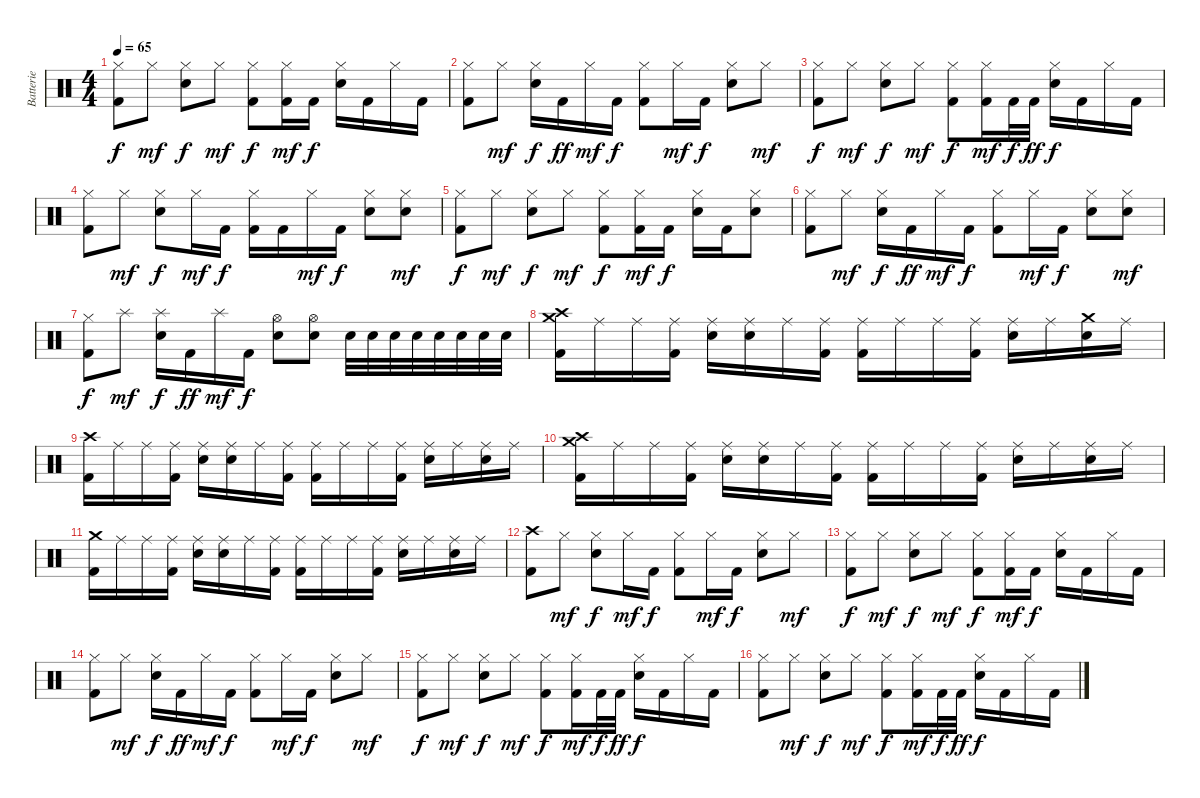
\track ("Batterie" "Batterie") {instrument percussion}
\staff {score}
\articulation defaults
\ts (4 4)
\tempo 65
\clef neutral
\ks c
("Hi-Hat (closed)" "Kick (hit) 2").8{dy f} "Hi-Hat (closed)".8{dy mf} ("Hi-Hat (closed)" "Electric Snare (hit)").8{dy f} "Hi-Hat (closed)".8{dy mf} ("Hi-Hat (closed)" "Kick (hit) 2").8{dy f} ("Hi-Hat (closed)" "Kick (hit) 2").16{dy mf} "Kick (hit) 2".16{dy f} ("Hi-Hat (closed)" "Electric Snare (hit)").16 "Kick (hit) 2".16 "Hi-Hat (closed)".16 "Kick (hit) 2".16 |
("Hi-Hat (closed)" "Kick (hit) 2").8 "Hi-Hat (closed)".8{dy mf} ("Hi-Hat (closed)" "Electric Snare (hit)").16{dy f} "Kick (hit) 2".16{dy ff} "Hi-Hat (closed)".16{dy mf} "Kick (hit) 2".16{dy f} ("Hi-Hat (closed)" "Kick (hit) 2").8 "Hi-Hat (closed)".16{dy mf} "Kick (hit) 2".16{dy f} ("Hi-Hat (closed)" "Electric Snare (hit)").8 "Hi-Hat (closed)".8{dy mf} |
("Hi-Hat (closed)" "Kick (hit) 2").8{dy f} "Hi-Hat (closed)".8{dy mf} ("Hi-Hat (closed)" "Electric Snare (hit)").8{dy f} "Hi-Hat (closed)".8{dy mf} ("Hi-Hat (closed)" "Kick (hit) 2").8{dy f} ("Hi-Hat (closed)" "Kick (hit) 2").16{dy mf} "Kick (hit) 2".32{dy f} "Kick (hit) 2".32{dy ff} ("Hi-Hat (closed)" "Electric Snare (hit)").16{dy f} "Kick (hit) 2".16 "Hi-Hat (closed)".16 "Kick (hit) 2".16 |
("Hi-Hat (closed)" "Kick (hit) 2").8 "Hi-Hat (closed)".8{dy mf} ("Hi-Hat (closed)" "Electric Snare (hit)").8{dy f} "Hi-Hat (closed)".16{dy mf} "Kick (hit) 2".16{dy f} ("Hi-Hat (closed)" "Kick (hit) 2").16 "Kick (hit) 2".16 "Hi-Hat (closed)".16{dy mf} "Kick (hit) 2".16{dy f} ("Hi-Hat (closed)" "Electric Snare (hit)").8 ("Hi-Hat (closed)" "Electric Snare (hit)").8{dy mf} |
("Hi-Hat (closed)" "Kick (hit) 2").8{dy f} "Hi-Hat (closed)".8{dy mf} ("Hi-Hat (closed)" "Electric Snare (hit)").8{dy f} "Hi-Hat (closed)".8{dy mf} ("Hi-Hat (closed)" "Kick (hit) 2").8{dy f} ("Hi-Hat (closed)" "Kick (hit) 2").16{dy mf} "Kick (hit) 2".16{dy f} ("Hi-Hat (closed)" "Electric Snare (hit)").16 "Kick (hit) 2".16 ("Hi-Hat (closed)" "Electric Snare (hit)").8 |
("Hi-Hat (closed)" "Kick (hit) 2").8 "Hi-Hat (closed)".8{dy mf} ("Hi-Hat (closed)" "Electric Snare (hit)").16{dy f} "Kick (hit) 2".16{dy ff} "Hi-Hat (closed)".16{dy mf} "Kick (hit) 2".16{dy f} ("Hi-Hat (closed)" "Kick (hit) 2").8 "Hi-Hat (closed)".16{dy mf} "Kick (hit) 2".16{dy f} ("Hi-Hat (closed)" "Electric Snare (hit)").8 ("Hi-Hat (closed)" "Electric Snare (hit)").8{dy mf} |
("Hi-Hat (closed)" "Kick (hit) 2").8{dy f} "Splash (hit)".8{dy mf} ("Splash (hit)" "Electric Snare (hit)").16{dy f} "Kick (hit) 2".16{dy ff} "Splash (hit)".16{dy mf} "Kick (hit) 2".16{dy f} ("Hi-Hat (open)" "Electric Snare (hit)").8 ("Hi-Hat (open)" "Electric Snare (hit)").8 "Electric Snare (hit)".32 "Electric Snare (hit)".32 "Electric Snare (hit)".32 "Electric Snare (hit)".32 "Electric Snare (hit)".32 "Electric Snare (hit)".32 "Electric Snare (hit)".32 "Electric Snare (hit)".32 |
("Crash high (hit)" "Crash medium (hit)" "Kick (hit) 2").16 "Ride (middle)".16 "Ride (middle)".16 ("Ride (middle)" "Kick (hit) 2").16 ("Ride (middle)" "Electric Snare (hit)").16 ("Ride (middle)" "Electric Snare (hit)").16 "Ride (middle)".16 ("Ride (middle)" "Kick (hit) 2").16 ("Ride (middle)" "Kick (hit) 2").16 "Ride (middle)".16 "Ride (middle)".16 ("Ride (middle)" "Kick (hit) 2").16 ("Ride (middle)" "Electric Snare (hit)").16 "Ride (middle)".16 ("Crash medium (hit)" "Electric Snare (hit)").16 "Ride (middle)".16 |
("Crash high (hit)" "Kick (hit) 2").16 "Ride (middle)".16 "Ride (middle)".16 ("Ride (middle)" "Kick (hit) 2").16 ("Ride (middle)" "Electric Snare (hit)").16 ("Ride (middle)" "Electric Snare (hit)").16 "Ride (middle)".16 ("Ride (middle)" "Kick (hit) 2").16 ("Ride (middle)" "Kick (hit) 2").16 "Ride (middle)".16 "Ride (middle)".16 ("Ride (middle)" "Kick (hit) 2").16 ("Ride (middle)" "Electric Snare (hit)").16 "Ride (middle)".16 ("Ride (middle)" "Electric Snare (hit)").16 "Ride (middle)".16 |
("Crash high (hit)" "Crash medium (hit)" "Kick (hit) 2").16 "Ride (middle)".16 "Ride (middle)".16 ("Ride (middle)" "Kick (hit) 2").16 ("Ride (middle)" "Electric Snare (hit)").16 ("Ride (middle)" "Electric Snare (hit)").16 "Ride (middle)".16 ("Ride (middle)" "Kick (hit) 2").16 ("Ride (middle)" "Kick (hit) 2").16 "Ride (middle)".16 "Ride (middle)".16 ("Ride (middle)" "Kick (hit) 2").16 ("Ride (middle)" "Electric Snare (hit)").16 "Ride (middle)".16 ("Ride (middle)" "Electric Snare (hit)").16 "Ride (middle)".16 |
("Crash medium (hit)" "Kick (hit) 2").16 "Ride (middle)".16 "Ride (middle)".16 ("Ride (middle)" "Kick (hit) 2").16 ("Ride (middle)" "Electric Snare (hit)").16 ("Ride (middle)" "Electric Snare (hit)").16 "Ride (middle)".16 ("Ride (middle)" "Kick (hit) 2").16 ("Ride (middle)" "Kick (hit) 2").16 "Ride (middle)".16 "Ride (middle)".16 ("Ride (middle)" "Kick (hit) 2").16 ("Ride (middle)" "Electric Snare (hit)").16 "Ride (middle)".16 ("Ride (middle)" "Electric Snare (hit)").16 "Ride (middle)".16 |
("Crash high (hit)" "Kick (hit) 2").8 "Hi-Hat (closed)".8{dy mf} ("Hi-Hat (closed)" "Electric Snare (hit)").8{dy f} "Hi-Hat (closed)".16{dy mf} "Kick (hit) 2".16{dy f} ("Hi-Hat (closed)" "Kick (hit) 2").8 "Hi-Hat (closed)".16{dy mf} "Kick (hit) 2".16{dy f} ("Hi-Hat (closed)" "Electric Snare (hit)").8 "Hi-Hat (closed)".8{dy mf} |
("Hi-Hat (closed)" "Kick (hit) 2").8{dy f} "Hi-Hat (closed)".8{dy mf} ("Hi-Hat (closed)" "Electric Snare (hit)").8{dy f} "Hi-Hat (closed)".8{dy mf} ("Hi-Hat (closed)" "Kick (hit) 2").8{dy f} ("Hi-Hat (closed)" "Kick (hit) 2").16{dy mf} "Kick (hit) 2".16{dy f} ("Hi-Hat (closed)" "Electric Snare (hit)").16 "Kick (hit) 2".16 "Hi-Hat (closed)".16 "Kick (hit) 2".16 |
("Hi-Hat (closed)" "Kick (hit) 2").8 "Hi-Hat (closed)".8{dy mf} ("Hi-Hat (closed)" "Electric Snare (hit)").16{dy f} "Kick (hit) 2".16{dy ff} "Hi-Hat (closed)".16{dy mf} "Kick (hit) 2".16{dy f} ("Hi-Hat (closed)" "Kick (hit) 2").8 "Hi-Hat (closed)".16{dy mf} "Kick (hit) 2".16{dy f} ("Hi-Hat (closed)" "Electric Snare (hit)").8 "Hi-Hat (closed)".8{dy mf} |
("Hi-Hat (closed)" "Kick (hit) 2").8{dy f} "Hi-Hat (closed)".8{dy mf} ("Hi-Hat (closed)" "Electric Snare (hit)").8{dy f} "Hi-Hat (closed)".8{dy mf} ("Hi-Hat (closed)" "Kick (hit) 2").8{dy f} ("Hi-Hat (closed)" "Kick (hit) 2").16{dy mf} "Kick (hit) 2".32{dy f} "Kick (hit) 2".32{dy ff} ("Hi-Hat (closed)" "Electric Snare (hit)").16{dy f} "Kick (hit) 2".16 "Hi-Hat (closed)".16 "Kick (hit) 2".16 |
("Hi-Hat (closed)" "Kick (hit) 2").8 "Hi-Hat (closed)".8{dy mf} ("Hi-Hat (closed)" "Electric Snare (hit)").8{dy f} "Hi-Hat (closed)".8{dy mf} ("Hi-Hat (closed)" "Kick (hit) 2").8{dy f} ("Hi-Hat (closed)" "Kick (hit) 2").16{dy mf} "Kick (hit) 2".32{dy f} "Kick (hit) 2".32{dy ff} ("Hi-Hat (closed)" "Electric Snare (hit)").16{dy f} "Kick (hit) 2".16 "Hi-Hat (closed)".16 "Kick (hit) 2".16
